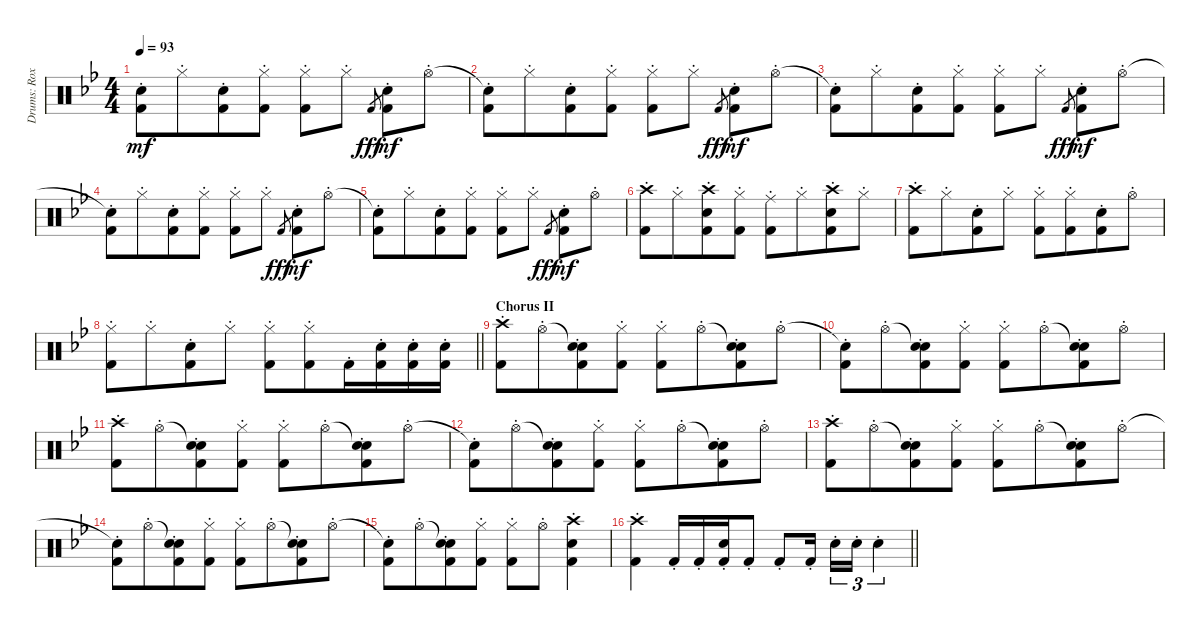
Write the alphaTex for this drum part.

\track ("Drums: Roxy" "Drums: Rox") {instrument percussion}
\staff {score}
\articulation defaults
\ts (4 4)
\tempo 93
\clef neutral
\ks bb
("Snare (hit)"{t} "Kick (hit) 2"{st}).8{dy mf} "Hi-Hat (closed)"{st}.8{beam merge} ("Snare (hit) 2"{st} "Kick (hit) 2"{st}).8 ("Hi-Hat (closed)"{st} "Kick (hit) 2"{st}).8{beam split} ("Hi-Hat (closed)"{st} "Kick (hit) 2"{st}).8 "Hi-Hat (closed)"{st}.8 "Kick (hit) 2".8{gr dy fff beam merge} ("Snare (hit) 2"{st} "Kick (hit) 2"{st}).8{dy mf} "Hi-Hat (open)"{st}.8 |
("Snare (hit)"{t} "Kick (hit) 2"{st}).8 "Hi-Hat (closed)"{st}.8{beam merge} ("Snare (hit) 2"{st} "Kick (hit) 2"{st}).8 ("Hi-Hat (closed)"{st} "Kick (hit) 2"{st}).8{beam split} ("Hi-Hat (closed)"{st} "Kick (hit) 2"{st}).8 "Hi-Hat (closed)"{st}.8 "Kick (hit) 2".8{gr dy fff beam merge} ("Snare (hit) 2"{st} "Kick (hit) 2"{st}).8{dy mf} "Hi-Hat (open)"{st}.8 |
("Snare (hit)"{t} "Kick (hit) 2"{st}).8 "Hi-Hat (closed)"{st}.8{beam merge} ("Snare (hit) 2"{st} "Kick (hit) 2"{st}).8 ("Hi-Hat (closed)"{st} "Kick (hit) 2"{st}).8{beam split} ("Hi-Hat (closed)"{st} "Kick (hit) 2"{st}).8 "Hi-Hat (closed)"{st}.8 "Kick (hit) 2".8{gr dy fff beam merge} ("Snare (hit) 2"{st} "Kick (hit) 2"{st}).8{dy mf} "Hi-Hat (open)"{st}.8 |
("Snare (hit)"{t} "Kick (hit) 2"{st}).8 "Hi-Hat (closed)"{st}.8{beam merge} ("Snare (hit) 2"{st} "Kick (hit) 2"{st}).8 ("Hi-Hat (closed)"{st} "Kick (hit) 2"{st}).8{beam split} ("Hi-Hat (closed)"{st} "Kick (hit) 2"{st}).8 "Hi-Hat (closed)"{st}.8 "Kick (hit) 2".8{gr dy fff beam merge} ("Snare (hit) 2"{st} "Kick (hit) 2"{st}).8{dy mf} "Hi-Hat (open)"{st}.8 |
("Snare (hit)"{t} "Kick (hit) 2"{st}).8 "Hi-Hat (closed)"{st}.8{beam merge} ("Snare (hit) 2"{st} "Kick (hit) 2"{st}).8 ("Hi-Hat (closed)"{st} "Kick (hit) 2"{st}).8{beam split} ("Hi-Hat (closed)"{st} "Kick (hit) 2"{st}).8 "Hi-Hat (closed)"{st}.8 "Kick (hit) 2".8{gr dy fff beam merge} ("Snare (hit) 2"{st} "Kick (hit) 2"{st}).8{dy mf} "Hi-Hat (open)"{st}.8 |
("Crash high (hit)"{st} "Kick (hit) 2"{st}).8 "Hi-Hat (closed)"{st}.8{beam merge} ("Crash high (hit)"{st} "Snare (hit) 2"{st} "Kick (hit) 2"{st}).8 ("Hi-Hat (closed)"{st} "Kick (hit) 2"{st}).8{beam split} ("Ride (middle)"{st} "Kick (hit) 2"{st}).8 "Hi-Hat (closed)"{st}.8{beam merge} ("Crash high (hit)"{st} "Snare (hit) 2"{st} "Kick (hit) 2"{st}).8 "Hi-Hat (closed)"{st}.8 |
("Crash high (hit)"{st} "Kick (hit) 2"{st}).8 "Hi-Hat (closed)"{st}.8{beam merge} ("Snare (hit) 2"{st} "Kick (hit) 2"{st}).8 "Hi-Hat (closed)"{st}.8{beam split} ("Hi-Hat (closed)"{st} "Kick (hit) 2"{st}).8 ("Hi-Hat (closed)"{st} "Kick (hit) 2"{st}).8{beam merge} ("Snare (hit) 2"{st} "Kick (hit) 2"{st}).8 "Hi-Hat (open)"{st}.8 |
\barLineRight lightlight
("Hi-Hat (closed)"{st} "Kick (hit) 2"{st}).8 "Hi-Hat (closed)"{st}.8{beam merge} ("Snare (hit) 2"{st} "Kick (hit) 2"{st}).8 "Hi-Hat (closed)"{st}.8{beam split} ("Hi-Hat (closed)"{st} "Kick (hit) 2"{st}).8 ("Hi-Hat (closed)"{st} "Kick (hit) 2"{st}).8{beam merge} "Kick (hit) 2"{st}.16{beam merge} ("Snare (hit) 2"{st} "Kick (hit) 2"{st}).16{beam merge} ("Snare (hit) 2"{st} "Kick (hit) 2"{st}).16{beam merge} ("Snare (hit) 2"{st} "Kick (hit) 2"{st}).16 |
\section ("" "Chorus II")
("Crash high (hit)"{st} "Kick (hit) 2"{st}).8 "Hi-Hat (open)"{st}.8{beam merge} ("Snare (hit)"{t} "Snare (hit) 2"{st} "Kick (hit) 2"{st}).8 ("Hi-Hat (closed)"{st} "Kick (hit) 2"{st}).8{beam split} ("Hi-Hat (closed)"{st} "Kick (hit) 2"{st}).8 "Hi-Hat (open)"{st}.8{beam merge} ("Snare (hit)"{t} "Snare (hit) 2"{st} "Kick (hit) 2"{st}).8 "Hi-Hat (open)"{st}.8 |
("Snare (hit)"{t} "Kick (hit) 2"{st}).8 "Hi-Hat (open)"{st}.8{beam merge} ("Snare (hit)"{t} "Snare (hit) 2"{st} "Kick (hit) 2"{st}).8 ("Hi-Hat (closed)"{st} "Kick (hit) 2"{st}).8{beam split} ("Hi-Hat (closed)"{st} "Kick (hit) 2"{st}).8 "Hi-Hat (open)"{st}.8{beam merge} ("Snare (hit)"{t} "Snare (hit) 2"{st} "Kick (hit) 2"{st}).8 "Hi-Hat (open)"{st}.8 |
("Crash high (hit)"{st} "Kick (hit) 2"{st}).8 "Hi-Hat (open)"{st}.8{beam merge} ("Snare (hit)"{t} "Snare (hit) 2"{st} "Kick (hit) 2"{st}).8 ("Hi-Hat (closed)"{st} "Kick (hit) 2"{st}).8{beam split} ("Hi-Hat (closed)"{st} "Kick (hit) 2"{st}).8 "Hi-Hat (open)"{st}.8{beam merge} ("Snare (hit)"{t} "Snare (hit) 2"{st} "Kick (hit) 2"{st}).8 "Hi-Hat (open)"{st}.8 |
("Snare (hit)"{t} "Kick (hit) 2"{st}).8 "Hi-Hat (open)"{st}.8{beam merge} ("Snare (hit)"{t} "Snare (hit) 2"{st} "Kick (hit) 2"{st}).8 ("Hi-Hat (closed)"{st} "Kick (hit) 2"{st}).8{beam split} ("Hi-Hat (closed)"{st} "Kick (hit) 2"{st}).8 "Hi-Hat (open)"{st}.8{beam merge} ("Snare (hit)"{t} "Snare (hit) 2"{st} "Kick (hit) 2"{st}).8 "Hi-Hat (open)"{st}.8 |
("Crash high (hit)"{st} "Kick (hit) 2"{st}).8 "Hi-Hat (open)"{st}.8{beam merge} ("Snare (hit)"{t} "Snare (hit) 2"{st} "Kick (hit) 2"{st}).8 ("Hi-Hat (closed)"{st} "Kick (hit) 2"{st}).8{beam split} ("Hi-Hat (closed)"{st} "Kick (hit) 2"{st}).8 "Hi-Hat (open)"{st}.8{beam merge} ("Snare (hit)"{t} "Snare (hit) 2"{st} "Kick (hit) 2"{st}).8 "Hi-Hat (open)"{st}.8 |
("Snare (hit)"{t} "Kick (hit) 2"{st}).8 "Hi-Hat (open)"{st}.8{beam merge} ("Snare (hit)"{t} "Snare (hit) 2"{st} "Kick (hit) 2"{st}).8 ("Hi-Hat (closed)"{st} "Kick (hit) 2"{st}).8{beam split} ("Hi-Hat (closed)"{st} "Kick (hit) 2"{st}).8 "Hi-Hat (open)"{st}.8{beam merge} ("Snare (hit)"{t} "Snare (hit) 2"{st} "Kick (hit) 2"{st}).8 "Hi-Hat (open)"{st}.8 |
("Snare (hit)"{t} "Kick (hit) 2"{st}).8 "Hi-Hat (open)"{st}.8{beam merge} ("Snare (hit)"{t} "Snare (hit) 2"{st} "Kick (hit) 2"{st}).8 ("Hi-Hat (closed)"{st} "Kick (hit) 2"{st}).8{beam split} ("Hi-Hat (closed)"{st} "Kick (hit) 2"{st}).8 "Hi-Hat (open)"{st}.8{beam merge} ("Crash high (hit)"{st} "Snare (hit) 2"{st} "Kick (hit) 2"{st}).4 |
\barLineRight lightlight
("Crash high (hit)"{st} "Kick (hit) 2"{st}).4 "Kick (hit) 2"{st}.16 "Kick (hit) 2"{st}.16 ("Snare (hit) 2"{st} "Kick (hit) 2"{st}).16 "Kick (hit) 2"{st}.8 "Kick (hit) 2"{st}.8 "Kick (hit) 2"{st}.16 "Snare (hit) 2"{st}.16{tu (3 2)} "Snare (hit) 2"{st}.16{tu (3 2)} "Snare (hit) 2"{st}.4{tu (3 2)}
